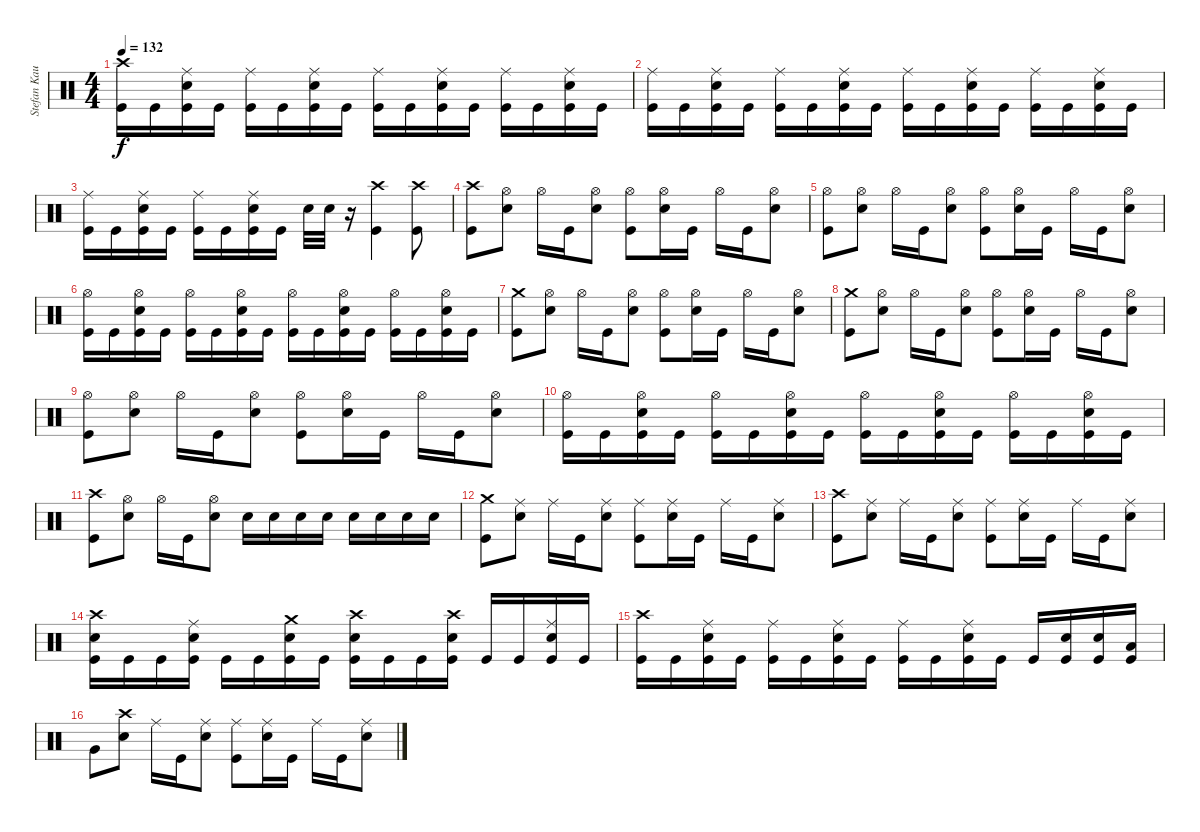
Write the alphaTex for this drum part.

\track ("Stefan Kaufmann" "Stefan Kau") {instrument percussion}
\staff {score}
\articulation defaults
\ts (4 4)
\tempo 132
\clef neutral
\ks c
("Crash high (hit)" "Kick (hit)").16{dy f} "Kick (hit)".16 ("Ride (middle)" "Snare (hit) 2" "Kick (hit)").16 "Kick (hit)".16 ("Ride (middle)" "Kick (hit)").16 "Kick (hit)".16 ("Ride (middle)" "Snare (hit) 2" "Kick (hit)").16 "Kick (hit)".16 ("Ride (middle)" "Kick (hit)").16 "Kick (hit)".16 ("Ride (middle)" "Snare (hit) 2" "Kick (hit)").16 "Kick (hit)".16 ("Ride (middle)" "Kick (hit)").16 "Kick (hit)".16 ("Ride (middle)" "Snare (hit) 2" "Kick (hit)").16 "Kick (hit)".16 |
("Ride (middle)" "Kick (hit)").16 "Kick (hit)".16 ("Ride (middle)" "Snare (hit) 2" "Kick (hit)").16 "Kick (hit)".16 ("Ride (middle)" "Kick (hit)").16 "Kick (hit)".16 ("Ride (middle)" "Snare (hit) 2" "Kick (hit)").16 "Kick (hit)".16 ("Ride (middle)" "Kick (hit)").16 "Kick (hit)".16 ("Ride (middle)" "Snare (hit) 2" "Kick (hit)").16 "Kick (hit)".16 ("Ride (middle)" "Kick (hit)").16 "Kick (hit)".16 ("Ride (middle)" "Snare (hit) 2" "Kick (hit)").16 "Kick (hit)".16 |
("Ride (middle)" "Kick (hit)").16 "Kick (hit)".16 ("Ride (middle)" "Snare (hit) 2" "Kick (hit)").16 "Kick (hit)".16 ("Ride (middle)" "Kick (hit)").16 "Kick (hit)".16 ("Ride (middle)" "Snare (hit) 2" "Kick (hit)").16 "Kick (hit)".16 "Snare (hit) 2".32 "Snare (hit) 2".32 r.16 ("Crash high (hit)" "Kick (hit)").4 ("Crash high (hit)" "Kick (hit)").8 |
("Crash high (hit)" "Kick (hit)").8 ("Hi-Hat (open)" "Snare (hit) 2").8 "Hi-Hat (open)".16 "Kick (hit)".16 ("Hi-Hat (open)" "Snare (hit) 2").8 ("Hi-Hat (open)" "Kick (hit)").8 ("Hi-Hat (open)" "Snare (hit) 2").16 "Kick (hit)".16 "Hi-Hat (open)".16 "Kick (hit)".16 ("Hi-Hat (open)" "Snare (hit) 2").8 |
("Hi-Hat (open)" "Kick (hit)").8 ("Hi-Hat (open)" "Snare (hit) 2").8 "Hi-Hat (open)".16 "Kick (hit)".16 ("Hi-Hat (open)" "Snare (hit) 2").8 ("Hi-Hat (open)" "Kick (hit)").8 ("Hi-Hat (open)" "Snare (hit) 2").16 "Kick (hit)".16 "Hi-Hat (open)".16 "Kick (hit)".16 ("Hi-Hat (open)" "Snare (hit) 2").8 |
("Hi-Hat (open)" "Kick (hit)").16 "Kick (hit)".16 ("Hi-Hat (open)" "Snare (hit) 2" "Kick (hit)").16 "Kick (hit)".16 ("Hi-Hat (open)" "Kick (hit)").16 "Kick (hit)".16 ("Hi-Hat (open)" "Snare (hit) 2" "Kick (hit)").16 "Kick (hit)".16 ("Hi-Hat (open)" "Kick (hit)").16 "Kick (hit)".16 ("Hi-Hat (open)" "Snare (hit) 2" "Kick (hit)").16 "Kick (hit)".16 ("Hi-Hat (open)" "Kick (hit)").16 "Kick (hit)".16 ("Hi-Hat (open)" "Snare (hit) 2" "Kick (hit)").16 "Kick (hit)".16 |
("Crash medium (hit)" "Kick (hit)").8 ("Hi-Hat (open)" "Snare (hit) 2").8 "Hi-Hat (open)".16 "Kick (hit)".16 ("Hi-Hat (open)" "Snare (hit) 2").8 ("Hi-Hat (open)" "Kick (hit)").8 ("Hi-Hat (open)" "Snare (hit) 2").16 "Kick (hit)".16 "Hi-Hat (open)".16 "Kick (hit)".16 ("Hi-Hat (open)" "Snare (hit) 2").8 |
("Crash medium (hit)" "Kick (hit)").8 ("Hi-Hat (open)" "Snare (hit) 2").8 "Hi-Hat (open)".16 "Kick (hit)".16 ("Hi-Hat (open)" "Snare (hit) 2").8 ("Hi-Hat (open)" "Kick (hit)").8 ("Hi-Hat (open)" "Snare (hit) 2").16 "Kick (hit)".16 "Hi-Hat (open)".16 "Kick (hit)".16 ("Hi-Hat (open)" "Snare (hit) 2").8 |
("Hi-Hat (open)" "Kick (hit)").8 ("Hi-Hat (open)" "Snare (hit) 2").8 "Hi-Hat (open)".16 "Kick (hit)".16 ("Hi-Hat (open)" "Snare (hit) 2").8 ("Hi-Hat (open)" "Kick (hit)").8 ("Hi-Hat (open)" "Snare (hit) 2").16 "Kick (hit)".16 "Hi-Hat (open)".16 "Kick (hit)".16 ("Hi-Hat (open)" "Snare (hit) 2").8 |
("Hi-Hat (open)" "Kick (hit)").16 "Kick (hit)".16 ("Hi-Hat (open)" "Snare (hit) 2" "Kick (hit)").16 "Kick (hit)".16 ("Hi-Hat (open)" "Kick (hit)").16 "Kick (hit)".16 ("Hi-Hat (open)" "Snare (hit) 2" "Kick (hit)").16 "Kick (hit)".16 ("Hi-Hat (open)" "Kick (hit)").16 "Kick (hit)".16 ("Hi-Hat (open)" "Snare (hit) 2" "Kick (hit)").16 "Kick (hit)".16 ("Hi-Hat (open)" "Kick (hit)").16 "Kick (hit)".16 ("Hi-Hat (open)" "Snare (hit) 2" "Kick (hit)").16 "Kick (hit)".16 |
("Crash high (hit)" "Kick (hit)").8 ("Hi-Hat (open)" "Snare (hit) 2").8 "Hi-Hat (open)".16 "Kick (hit)".16 ("Hi-Hat (open)" "Snare (hit) 2").8 "Snare (hit) 2".16 "Snare (hit) 2".16 "Snare (hit) 2".16 "Snare (hit) 2".16 "Snare (hit) 2".16 "Snare (hit) 2".16 "Snare (hit) 2".16 "Snare (hit) 2".16 |
("Crash medium (hit)" "Kick (hit)").8 ("Ride (middle)" "Snare (hit) 2").8 "Ride (middle)".16 "Kick (hit)".16 ("Ride (middle)" "Snare (hit) 2").8 ("Ride (middle)" "Kick (hit)").8 ("Ride (middle)" "Snare (hit) 2").16 "Kick (hit)".16 "Ride (middle)".16 "Kick (hit)".16 ("Ride (middle)" "Snare (hit) 2").8 |
("Crash high (hit)" "Kick (hit)").8 ("Ride (middle)" "Snare (hit) 2").8 "Ride (middle)".16 "Kick (hit)".16 ("Ride (middle)" "Snare (hit) 2").8 ("Ride (middle)" "Kick (hit)").8 ("Ride (middle)" "Snare (hit) 2").16 "Kick (hit)".16 "Ride (middle)".16 "Kick (hit)".16 ("Ride (middle)" "Snare (hit) 2").8 |
("Crash high (hit)" "Snare (hit) 2" "Kick (hit)").16 "Kick (hit)".16 "Kick (hit)".16 ("Ride (middle)" "Snare (hit) 2" "Kick (hit)").16 "Kick (hit)".16 "Kick (hit)".16 ("Crash medium (hit)" "Snare (hit) 2" "Kick (hit)").16 "Kick (hit)".16 ("Crash high (hit)" "Snare (hit) 2" "Kick (hit)").16 "Kick (hit)".16 "Kick (hit)".16 ("Crash high (hit)" "Snare (hit) 2" "Kick (hit)").16 "Kick (hit)".16 "Kick (hit)".16 ("Ride (middle)" "Snare (hit) 2" "Kick (hit)").16 "Kick (hit)".16 |
("Crash high (hit)" "Kick (hit)").16 "Kick (hit)".16 ("Ride (middle)" "Snare (hit) 2" "Kick (hit)").16 "Kick (hit)".16 ("Ride (middle)" "Kick (hit)").16 "Kick (hit)".16 ("Ride (middle)" "Snare (hit) 2" "Kick (hit)").16 "Kick (hit)".16 ("Ride (middle)" "Kick (hit)").16 "Kick (hit)".16 ("Ride (middle)" "Snare (hit) 2" "Kick (hit)").16 "Kick (hit)".16 "Kick (hit)".16 ("Snare (hit) 2" "Kick (hit)").16 ("Snare (hit) 2" "Kick (hit)").16 ("Low Tom (hit)" "Kick (hit)").16 |
"Very Low Tom (hit)".8 ("Crash high (hit)" "Snare (hit) 2").8 "Ride (middle)".16 "Kick (hit)".16 ("Ride (middle)" "Snare (hit) 2").8 ("Ride (middle)" "Kick (hit)").8 ("Ride (middle)" "Snare (hit) 2").16 "Kick (hit)".16 "Ride (middle)".16 "Kick (hit)".16 ("Ride (middle)" "Snare (hit) 2").8
